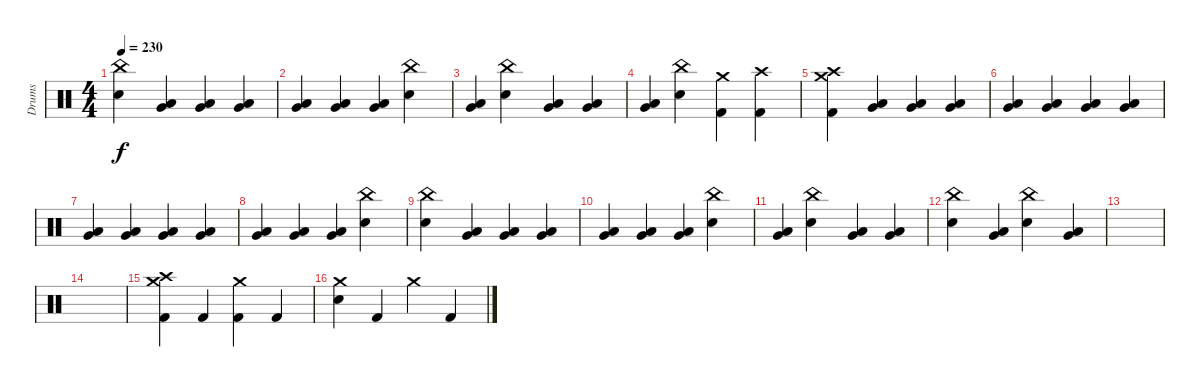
\track ("Drums" "Drums") {instrument percussion}
\staff {score}
\articulation defaults
\ts (4 4)
\tempo 230
\clef neutral
\ks c
("China (hit)" "Electric Snare (hit)").4{dy f} ("Low Floor Tom (hit)" "Very Low Tom (hit)").4 ("Low Floor Tom (hit)" "Very Low Tom (hit)").4 ("Low Floor Tom (hit)" "Very Low Tom (hit)").4 |
("Low Floor Tom (hit)" "Very Low Tom (hit)").4 ("Low Floor Tom (hit)" "Very Low Tom (hit)").4 ("Low Floor Tom (hit)" "Very Low Tom (hit)").4 ("China (hit)" "Electric Snare (hit)").4 |
("Low Floor Tom (hit)" "Very Low Tom (hit)").4 ("China (hit)" "Electric Snare (hit)").4 ("Low Floor Tom (hit)" "Very Low Tom (hit)").4 ("Low Floor Tom (hit)" "Very Low Tom (hit)").4 |
("Low Floor Tom (hit)" "Very Low Tom (hit)").4 ("China (hit)" "Electric Snare (hit)").4 ("Crash medium (hit)" "Kick (hit) 2").4 ("Crash high (hit)" "Kick (hit) 2").4 |
("Crash medium (hit)" "Crash high (hit)" "Kick (hit) 2").4 ("Low Floor Tom (hit)" "Very Low Tom (hit)").4 ("Low Floor Tom (hit)" "Very Low Tom (hit)").4 ("Low Floor Tom (hit)" "Very Low Tom (hit)").4 |
("Low Floor Tom (hit)" "Very Low Tom (hit)").4 ("Low Floor Tom (hit)" "Very Low Tom (hit)").4 ("Low Floor Tom (hit)" "Very Low Tom (hit)").4 ("Low Floor Tom (hit)" "Very Low Tom (hit)").4 |
("Low Floor Tom (hit)" "Very Low Tom (hit)").4 ("Low Floor Tom (hit)" "Very Low Tom (hit)").4 ("Low Floor Tom (hit)" "Very Low Tom (hit)").4 ("Low Floor Tom (hit)" "Very Low Tom (hit)").4 |
("Low Floor Tom (hit)" "Very Low Tom (hit)").4 ("Low Floor Tom (hit)" "Very Low Tom (hit)").4 ("Low Floor Tom (hit)" "Very Low Tom (hit)").4 ("China (hit)" "Electric Snare (hit)").4 |
("China (hit)" "Electric Snare (hit)").4 ("Low Floor Tom (hit)" "Very Low Tom (hit)").4 ("Low Floor Tom (hit)" "Very Low Tom (hit)").4 ("Low Floor Tom (hit)" "Very Low Tom (hit)").4 |
("Low Floor Tom (hit)" "Very Low Tom (hit)").4 ("Low Floor Tom (hit)" "Very Low Tom (hit)").4 ("Low Floor Tom (hit)" "Very Low Tom (hit)").4 ("China (hit)" "Electric Snare (hit)").4 |
("Low Floor Tom (hit)" "Very Low Tom (hit)").4 ("China (hit)" "Electric Snare (hit)").4 ("Low Floor Tom (hit)" "Very Low Tom (hit)").4 ("Low Floor Tom (hit)" "Very Low Tom (hit)").4 |
("China (hit)" "Electric Snare (hit)").4 ("Low Floor Tom (hit)" "Very Low Tom (hit)").4 ("China (hit)" "Electric Snare (hit)").4 ("Low Floor Tom (hit)" "Very Low Tom (hit)").4 |
|
|
("Crash medium (hit)" "Crash high (hit)" "Kick (hit) 2").4 "Kick (hit) 2".4 ("Crash medium (hit)" "Kick (hit) 2").4 "Kick (hit) 2".4 |
("Crash medium (hit)" "Electric Snare (hit)").4 "Kick (hit) 2".4 "Crash medium (hit)".4 "Kick (hit) 2".4
